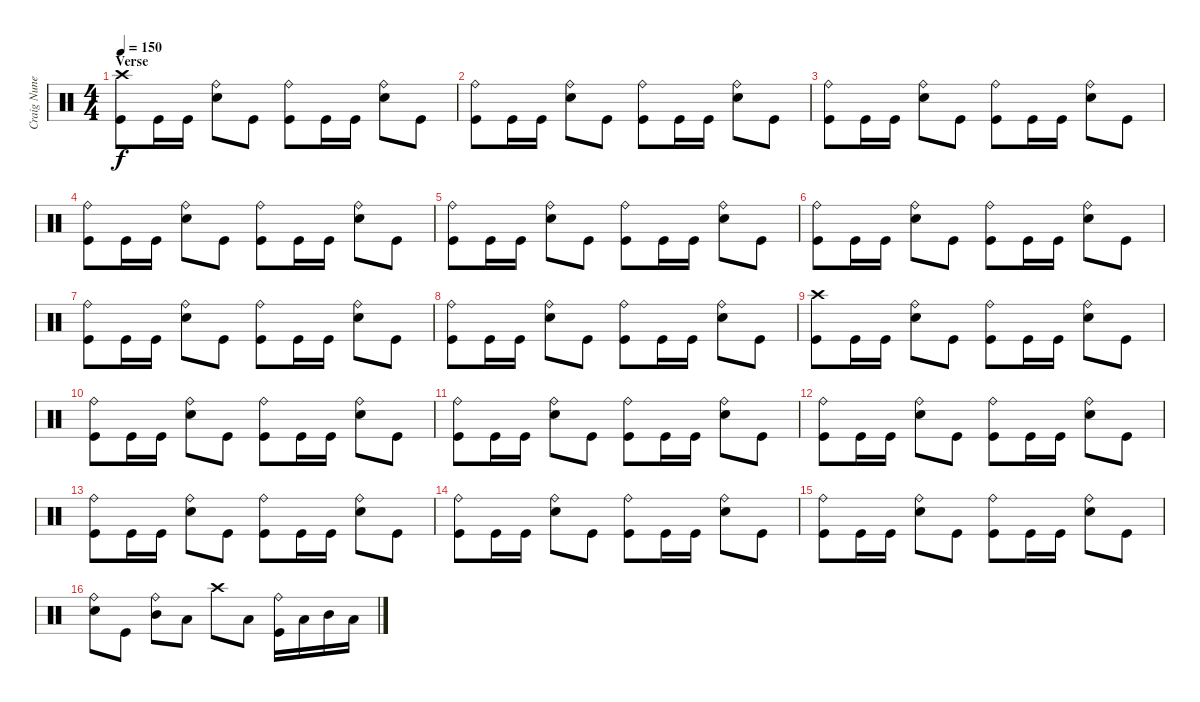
\track ("Craig Nunenmacher" "Craig Nune") {instrument percussion}
\staff {score}
\articulation defaults
\ts (4 4)
\section ("" "Verse")
\tempo 150
\clef neutral
\ks c
("Crash high (hit)" "Kick (hit)").8{dy f} "Kick (hit)".16 "Kick (hit)".16 ("Ride (bell)" "Snare (hit) 2").8 "Kick (hit)".8 ("Ride (bell)" "Kick (hit)").8 "Kick (hit)".16 "Kick (hit)".16 ("Ride (bell)" "Snare (hit) 2").8 "Kick (hit)".8 |
("Ride (bell)" "Kick (hit)").8 "Kick (hit)".16 "Kick (hit)".16 ("Ride (bell)" "Snare (hit) 2").8 "Kick (hit)".8 ("Ride (bell)" "Kick (hit)").8 "Kick (hit)".16 "Kick (hit)".16 ("Ride (bell)" "Snare (hit) 2").8 "Kick (hit)".8 |
("Ride (bell)" "Kick (hit)").8 "Kick (hit)".16 "Kick (hit)".16 ("Ride (bell)" "Snare (hit) 2").8 "Kick (hit)".8 ("Ride (bell)" "Kick (hit)").8 "Kick (hit)".16 "Kick (hit)".16 ("Ride (bell)" "Snare (hit) 2").8 "Kick (hit)".8 |
("Ride (bell)" "Kick (hit)").8 "Kick (hit)".16 "Kick (hit)".16 ("Ride (bell)" "Snare (hit) 2").8 "Kick (hit)".8 ("Ride (bell)" "Kick (hit)").8 "Kick (hit)".16 "Kick (hit)".16 ("Ride (bell)" "Snare (hit) 2").8 "Kick (hit)".8 |
("Ride (bell)" "Kick (hit)").8 "Kick (hit)".16 "Kick (hit)".16 ("Ride (bell)" "Snare (hit) 2").8 "Kick (hit)".8 ("Ride (bell)" "Kick (hit)").8 "Kick (hit)".16 "Kick (hit)".16 ("Ride (bell)" "Snare (hit) 2").8 "Kick (hit)".8 |
("Ride (bell)" "Kick (hit)").8 "Kick (hit)".16 "Kick (hit)".16 ("Ride (bell)" "Snare (hit) 2").8 "Kick (hit)".8 ("Ride (bell)" "Kick (hit)").8 "Kick (hit)".16 "Kick (hit)".16 ("Ride (bell)" "Snare (hit) 2").8 "Kick (hit)".8 |
("Ride (bell)" "Kick (hit)").8 "Kick (hit)".16 "Kick (hit)".16 ("Ride (bell)" "Snare (hit) 2").8 "Kick (hit)".8 ("Ride (bell)" "Kick (hit)").8 "Kick (hit)".16 "Kick (hit)".16 ("Ride (bell)" "Snare (hit) 2").8 "Kick (hit)".8 |
("Ride (bell)" "Kick (hit)").8 "Kick (hit)".16 "Kick (hit)".16 ("Ride (bell)" "Snare (hit) 2").8 "Kick (hit)".8 ("Ride (bell)" "Kick (hit)").8 "Kick (hit)".16 "Kick (hit)".16 ("Ride (bell)" "Snare (hit) 2").8 "Kick (hit)".8 |
("Crash high (hit)" "Kick (hit)").8 "Kick (hit)".16 "Kick (hit)".16 ("Ride (bell)" "Snare (hit) 2").8 "Kick (hit)".8 ("Ride (bell)" "Kick (hit)").8 "Kick (hit)".16 "Kick (hit)".16 ("Ride (bell)" "Snare (hit) 2").8 "Kick (hit)".8 |
("Ride (bell)" "Kick (hit)").8 "Kick (hit)".16 "Kick (hit)".16 ("Ride (bell)" "Snare (hit) 2").8 "Kick (hit)".8 ("Ride (bell)" "Kick (hit)").8 "Kick (hit)".16 "Kick (hit)".16 ("Ride (bell)" "Snare (hit) 2").8 "Kick (hit)".8 |
("Ride (bell)" "Kick (hit)").8 "Kick (hit)".16 "Kick (hit)".16 ("Ride (bell)" "Snare (hit) 2").8 "Kick (hit)".8 ("Ride (bell)" "Kick (hit)").8 "Kick (hit)".16 "Kick (hit)".16 ("Ride (bell)" "Snare (hit) 2").8 "Kick (hit)".8 |
("Ride (bell)" "Kick (hit)").8 "Kick (hit)".16 "Kick (hit)".16 ("Ride (bell)" "Snare (hit) 2").8 "Kick (hit)".8 ("Ride (bell)" "Kick (hit)").8 "Kick (hit)".16 "Kick (hit)".16 ("Ride (bell)" "Snare (hit) 2").8 "Kick (hit)".8 |
("Ride (bell)" "Kick (hit)").8 "Kick (hit)".16 "Kick (hit)".16 ("Ride (bell)" "Snare (hit) 2").8 "Kick (hit)".8 ("Ride (bell)" "Kick (hit)").8 "Kick (hit)".16 "Kick (hit)".16 ("Ride (bell)" "Snare (hit) 2").8 "Kick (hit)".8 |
("Ride (bell)" "Kick (hit)").8 "Kick (hit)".16 "Kick (hit)".16 ("Ride (bell)" "Snare (hit) 2").8 "Kick (hit)".8 ("Ride (bell)" "Kick (hit)").8 "Kick (hit)".16 "Kick (hit)".16 ("Ride (bell)" "Snare (hit) 2").8 "Kick (hit)".8 |
("Ride (bell)" "Kick (hit)").8 "Kick (hit)".16 "Kick (hit)".16 ("Ride (bell)" "Snare (hit) 2").8 "Kick (hit)".8 ("Ride (bell)" "Kick (hit)").8 "Kick (hit)".16 "Kick (hit)".16 ("Ride (bell)" "Snare (hit) 2").8 "Kick (hit)".8 |
("Ride (bell)" "Snare (hit) 2").8 "Kick (hit)".8 ("Ride (bell)" "Mid Tom (hit)").8 "Low Tom (hit)".8 "Crash high (hit)".8 "Low Tom (hit)".8 ("Ride (bell)" "Kick (hit)").16 "Low Tom (hit)".16 "Mid Tom (hit)".16 "Low Tom (hit)".16
